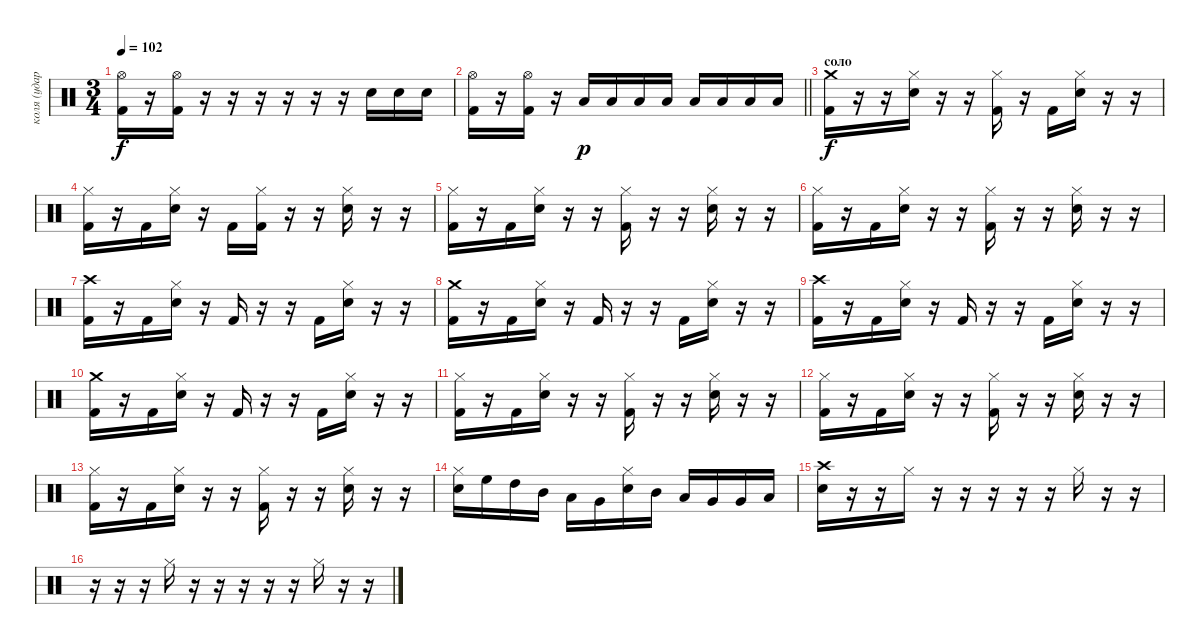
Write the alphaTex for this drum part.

\track ("коля (ударные)" "коля (удар") {instrument percussion}
\staff {score}
\articulation defaults
\ts (3 4)
\tempo 102
\clef neutral
\ks c
("Kick (hit) 2" "Hi-Hat (open)").16{dy f} r.16 ("Kick (hit) 2" "Hi-Hat (open)").16 r.16 r.16 r.16 r.16 r.16 r.16 "Snare (hit) 2".16 "Snare (hit) 2".16 "Snare (hit) 2".16 |
\barLineRight lightlight
("Kick (hit) 2" "Hi-Hat (open)").16 r.16 ("Kick (hit) 2" "Hi-Hat (open)").16 r.16 "Low Floor Tom (hit)".16{dy p} "Low Floor Tom (hit)".16 "Low Floor Tom (hit)".16 "Low Floor Tom (hit)".16 "Low Floor Tom (hit)".16 "Low Floor Tom (hit)".16 "Low Floor Tom (hit)".16 "Low Floor Tom (hit)".16 |
\section ("" "соло")
("Kick (hit) 2" "Crash medium (hit)").16{dy f} r.16 r.16 ("Snare (hit) 2" "Hi-Hat (closed)").16 r.16 r.16 ("Kick (hit) 2" "Hi-Hat (closed)").16 r.16 "Kick (hit) 2".16 ("Snare (hit) 2" "Hi-Hat (closed)").16 r.16 r.16 |
("Kick (hit) 2" "Hi-Hat (closed)").16 r.16 "Kick (hit) 2".16 ("Snare (hit) 2" "Hi-Hat (closed)").16 r.16 "Kick (hit) 2".16 ("Kick (hit) 2" "Hi-Hat (closed)").16 r.16 r.16 ("Snare (hit) 2" "Hi-Hat (closed)").16 r.16 r.16 |
("Kick (hit) 2" "Hi-Hat (closed)").16 r.16 "Kick (hit) 2".16 ("Snare (hit) 2" "Hi-Hat (closed)").16 r.16 r.16 ("Kick (hit) 2" "Hi-Hat (closed)").16 r.16 r.16 ("Snare (hit) 2" "Hi-Hat (closed)").16 r.16 r.16 |
("Kick (hit) 2" "Hi-Hat (closed)").16 r.16 "Kick (hit) 2".16 ("Snare (hit) 2" "Hi-Hat (closed)").16 r.16 r.16 ("Kick (hit) 2" "Hi-Hat (closed)").16 r.16 r.16 ("Snare (hit) 2" "Hi-Hat (closed)").16 r.16 r.16 |
("Kick (hit) 2" "Crash high (hit)").16 r.16 "Kick (hit) 2".16 ("Snare (hit) 2" "Hi-Hat (closed)").16 r.16 "Kick (hit) 2".16 r.16 r.16 "Kick (hit) 2".16 ("Snare (hit) 2" "Hi-Hat (closed)").16 r.16 r.16 |
("Kick (hit) 2" "Crash medium (hit)").16 r.16 "Kick (hit) 2".16 ("Snare (hit) 2" "Hi-Hat (closed)").16 r.16 "Kick (hit) 2".16 r.16 r.16 "Kick (hit) 2".16 ("Snare (hit) 2" "Hi-Hat (closed)").16 r.16 r.16 |
("Kick (hit) 2" "Crash high (hit)").16 r.16 "Kick (hit) 2".16 ("Snare (hit) 2" "Hi-Hat (closed)").16 r.16 "Kick (hit) 2".16 r.16 r.16 "Kick (hit) 2".16 ("Snare (hit) 2" "Hi-Hat (closed)").16 r.16 r.16 |
("Kick (hit) 2" "Crash medium (hit)").16 r.16 "Kick (hit) 2".16 ("Snare (hit) 2" "Hi-Hat (closed)").16 r.16 "Kick (hit) 2".16 r.16 r.16 "Kick (hit) 2".16 ("Snare (hit) 2" "Hi-Hat (closed)").16 r.16 r.16 |
("Kick (hit) 2" "Hi-Hat (closed)").16 r.16 "Kick (hit) 2".16 ("Snare (hit) 2" "Hi-Hat (closed)").16 r.16 r.16 ("Kick (hit) 2" "Hi-Hat (closed)").16 r.16 r.16 ("Snare (hit) 2" "Hi-Hat (closed)").16 r.16 r.16 |
("Kick (hit) 2" "Hi-Hat (closed)").16 r.16 "Kick (hit) 2".16 ("Snare (hit) 2" "Hi-Hat (closed)").16 r.16 r.16 ("Kick (hit) 2" "Hi-Hat (closed)").16 r.16 r.16 ("Snare (hit) 2" "Hi-Hat (closed)").16 r.16 r.16 |
("Kick (hit) 2" "Hi-Hat (closed)").16 r.16 "Kick (hit) 2".16 ("Snare (hit) 2" "Hi-Hat (closed)").16 r.16 r.16 ("Kick (hit) 2" "Hi-Hat (closed)").16 r.16 r.16 ("Snare (hit) 2" "Hi-Hat (closed)").16 r.16 r.16 |
("Snare (hit) 2" "Hi-Hat (closed)").16 "High Floor Tom (hit)".16 "High Tom (hit)".16 "Mid Tom (hit)".16 "Low Tom (hit)".16 "Very Low Tom (hit)".16 ("Snare (hit) 2" "Hi-Hat (closed)").16 "Mid Tom (hit)".16 "Low Tom (hit)".16 "Very Low Tom (hit)".16 "Very Low Tom (hit)".16 "Low Floor Tom (hit)".16 |
("Snare (hit) 2" "Crash high (hit)").16 r.16 r.16 "Hi-Hat (closed)".16 r.16 r.16 r.16 r.16 r.16 "Hi-Hat (closed)".16 r.16 r.16 |
r.16 r.16 r.16 "Hi-Hat (closed)".16 r.16 r.16 r.16 r.16 r.16 "Hi-Hat (closed)".16 r.16 r.16
